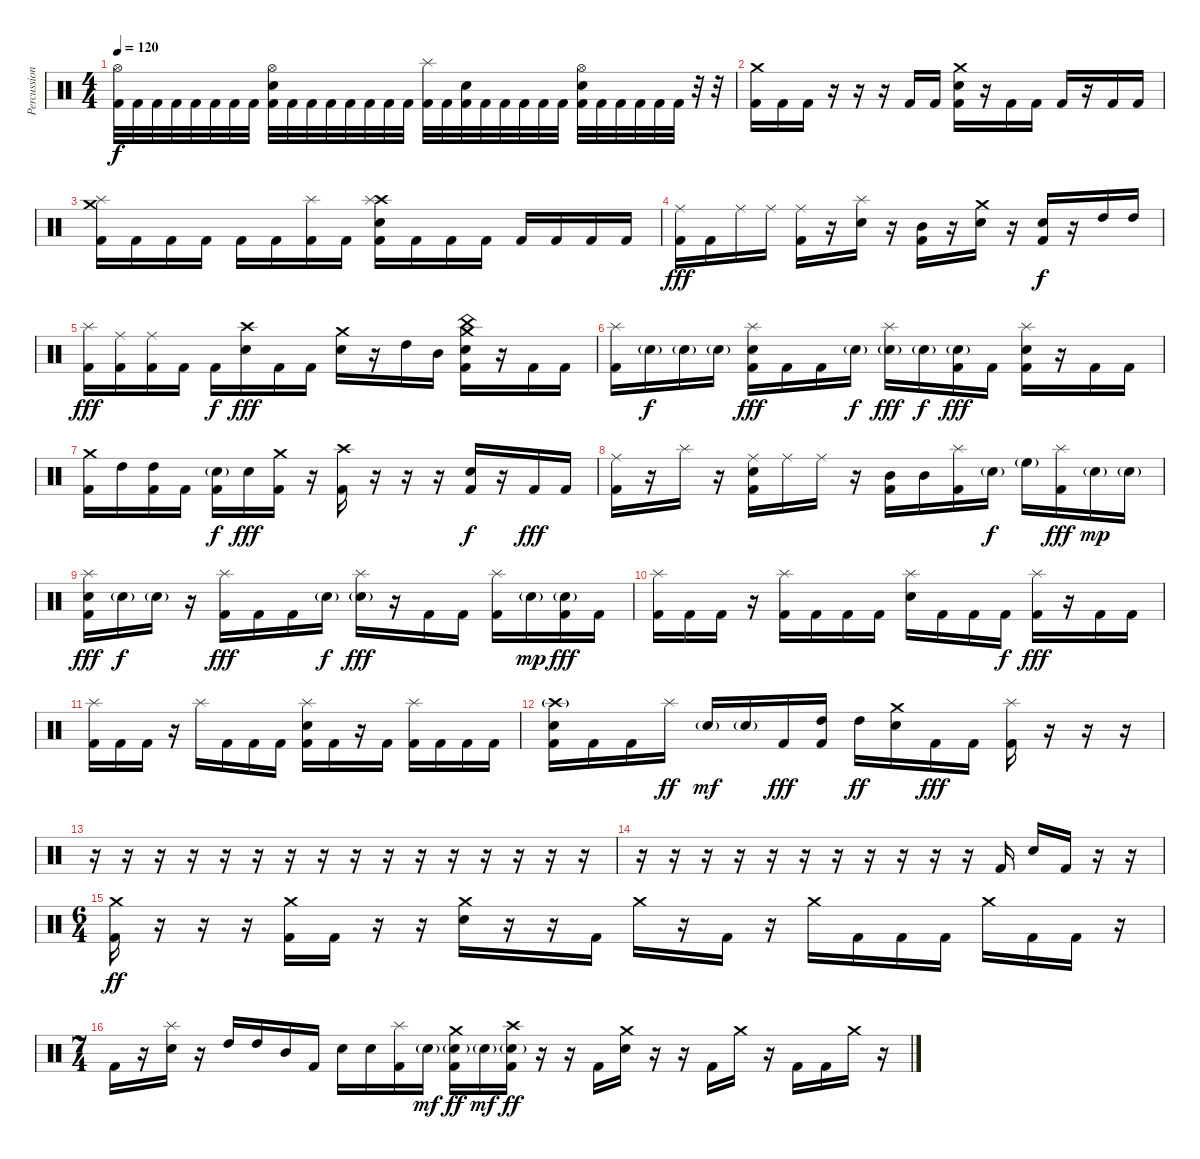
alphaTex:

\track ("Percussion" "Percussion") {instrument percussion}
\staff {score}
\articulation defaults
\ts (4 4)
\tempo 120
\clef neutral
\ks c
("Hi-Hat (open)" "Kick (hit) 2").32{dy f} "Kick (hit) 2".32 "Kick (hit) 2".32 "Kick (hit) 2".32 "Kick (hit) 2".32 "Kick (hit) 2".32 "Kick (hit) 2".32 "Kick (hit) 2".32 ("Hi-Hat (open)" "Electric Snare (hit)" "Kick (hit) 2").32 "Kick (hit) 2".32 "Kick (hit) 2".32 "Kick (hit) 2".32 "Kick (hit) 2".32 "Kick (hit) 2".32 "Kick (hit) 2".32 "Kick (hit) 2".32 ("Splash (hit)" "Kick (hit) 2").32 "Kick (hit) 2".32 ("Electric Snare (hit)" "Kick (hit) 2").32 "Kick (hit) 2".32 "Kick (hit) 2".32 "Kick (hit) 2".32 "Kick (hit) 2".32 "Kick (hit) 2".32 ("Hi-Hat (open)" "Electric Snare (hit)" "Kick (hit) 2").32 "Kick (hit) 2".32 "Kick (hit) 2".32 "Kick (hit) 2".32 "Kick (hit) 2".32 "Kick (hit) 2".32 r.32 r.32 |
("Crash medium (hit)" "Kick (hit) 2").16 "Kick (hit) 2".16 "Kick (hit) 2".16 r.16 r.16 r.16 "Kick (hit) 2".16 "Kick (hit) 2".16 ("Crash medium (hit)" "Electric Snare (hit)" "Kick (hit) 2").16 r.16 "Kick (hit) 2".16 "Kick (hit) 2".16 "Kick (hit) 2".16 r.16 "Kick (hit) 2".16 "Kick (hit) 2".16 |
("Crash medium (hit)" "Splash (hit)" "Kick (hit) 2").16 "Kick (hit) 2".16 "Kick (hit) 2".16 "Kick (hit) 2".16 "Kick (hit) 2".16 "Kick (hit) 2".16 ("Splash (hit)" "Kick (hit) 2").16 "Kick (hit) 2".16 ("Crash high (hit)" "Splash (hit)" "Electric Snare (hit)" "Kick (hit) 2").16 "Kick (hit) 2".16 "Kick (hit) 2".16 "Kick (hit) 2".16 "Kick (hit) 2".16 "Kick (hit) 2".16 "Kick (hit) 2".16 "Kick (hit) 2".16 |
("Ride (middle)" "Kick (hit) 2").16{dy fff} "Kick (hit) 2".16 "Ride (middle)".16 "Ride (middle)".16 ("Ride (middle)" "Kick (hit) 2").16 r.16 ("Splash (hit)" "Electric Snare (hit)").16 r.16 ("Mid Tom (hit)" "Kick (hit) 2").16 r.16 ("Crash medium (hit)" "Electric Snare (hit)").16 r.16 ("Electric Snare (hit)" "Kick (hit) 2").16{dy f} r.16 "High Tom (hit)".16 "High Tom (hit)".16 |
("Splash (hit)" "Kick (hit) 2").16{dy fff} ("Ride (middle)" "Kick (hit) 2").16 ("Ride (middle)" "Kick (hit) 2").16 "Kick (hit) 2".16 "Kick (hit) 2".16{dy f} ("Crash high (hit)" "Electric Snare (hit)").16{dy fff} "Kick (hit) 2".16 "Kick (hit) 2".16 ("Crash medium (hit)" "Electric Snare (hit)").16 r.16 "High Tom (hit)".16 "Mid Tom (hit)".16 ("China (hit)" "Crash medium (hit)" "Electric Snare (hit)" "Kick (hit) 2").16 r.16 "Kick (hit) 2".16 "Kick (hit) 2".16 |
("Splash (hit)" "Kick (hit) 2").16 "Electric Snare (hit)"{g}.16{dy f} "Electric Snare (hit)"{g}.16 "Electric Snare (hit)"{g}.16 ("Splash (hit)" "Electric Snare (hit)" "Kick (hit) 2").16{dy fff} "Kick (hit) 2".16 "Kick (hit) 2".16 "Electric Snare (hit)"{g}.16{dy f} ("Splash (hit)" "Electric Snare (hit)"{g}).16{dy fff} "Electric Snare (hit)"{g}.16{dy f} ("Electric Snare (hit)"{g} "Kick (hit) 2").16{dy fff} "Kick (hit) 2".16 ("Splash (hit)" "Electric Snare (hit)" "Kick (hit) 2").16 r.16 "Kick (hit) 2".16 "Kick (hit) 2".16 |
("Crash medium (hit)" "Kick (hit) 2").16 "High Tom (hit)".16 ("High Tom (hit)" "Kick (hit) 2").16 "Kick (hit) 2".16 ("Electric Snare (hit)"{g} "Kick (hit) 2").16{dy f} "Electric Snare (hit)".16{dy fff} ("Crash medium (hit)" "Kick (hit) 2").16 r.16 ("Crash high (hit)" "Kick (hit) 2").16 r.16 r.16 r.16 ("Electric Snare (hit)" "Kick (hit) 2").16{dy f} r.16 "Kick (hit) 2".16{dy fff} "Kick (hit) 2".16 |
("Ride (middle)" "Kick (hit) 2").16 r.16 "Splash (hit)".16 r.16 ("Ride (middle)" "Electric Snare (hit)" "Kick (hit) 2").16 "Ride (middle)".16 "Ride (middle)".16 r.16 ("Mid Tom (hit)" "Kick (hit) 2").16 "Mid Tom (hit)".16 ("Splash (hit)" "Kick (hit) 2").16 "Electric Snare (hit)"{g}.16{dy f} "High Floor Tom (hit)"{g}.16 ("Splash (hit)" "Kick (hit) 2").16{dy fff} "Electric Snare (hit)"{g}.16{dy mp} "Electric Snare (hit)"{g}.16 |
("Splash (hit)" "Electric Snare (hit)" "Kick (hit) 2").16{dy fff} "Electric Snare (hit)"{g}.16{dy f} "Electric Snare (hit)"{g}.16 r.16 ("Splash (hit)" "Kick (hit) 2").16{dy fff} "Kick (hit) 2".16 "Kick (hit) 2".16 "Electric Snare (hit)"{g}.16{dy f} ("Splash (hit)" "Electric Snare (hit)"{g}).16{dy fff} r.16 "Kick (hit) 2".16 "Kick (hit) 2".16 ("Splash (hit)" "Kick (hit) 2").16 "Electric Snare (hit)"{g}.16{dy mp} ("Electric Snare (hit)"{g} "Kick (hit) 2").16{dy fff} "Kick (hit) 2".16 |
("Splash (hit)" "Kick (hit) 2").16 "Kick (hit) 2".16 "Kick (hit) 2".16 r.16 ("Splash (hit)" "Kick (hit) 2").16 "Kick (hit) 2".16 "Kick (hit) 2".16 "Kick (hit) 2".16 ("Splash (hit)" "Electric Snare (hit)").16 "Kick (hit) 2".16 "Kick (hit) 2".16 "Kick (hit) 2".16{dy f} ("Splash (hit)" "Kick (hit) 2").16{dy fff} r.16 "Kick (hit) 2".16 "Kick (hit) 2".16 |
("Splash (hit)" "Kick (hit) 2").16 "Kick (hit) 2".16 "Kick (hit) 2".16 r.16 "Splash (hit)".16 "Kick (hit) 2".16 "Kick (hit) 2".16 "Kick (hit) 2".16 ("Splash (hit)" "Electric Snare (hit)" "Kick (hit) 2").16 "Kick (hit) 2".16 r.16 "Kick (hit) 2".16 ("Splash (hit)" "Kick (hit) 2").16 "Kick (hit) 2".16 "Kick (hit) 2".16 "Kick (hit) 2".16 |
("Crash high (hit)"{g} "Electric Snare (hit)" "Kick (hit) 2").16 "Kick (hit) 2".16 "Kick (hit) 2".16 "Splash (hit)".16{dy ff} "Electric Snare (hit)"{g}.16{dy mf} "Electric Snare (hit)"{g}.16 "Kick (hit) 2".16{dy fff} ("High Tom (hit)" "Kick (hit) 2").16 "High Tom (hit)".16{dy ff} ("Crash medium (hit)" "Electric Snare (hit)").16 "Kick (hit) 2".16{dy fff} "Kick (hit) 2".16 ("Splash (hit)" "Kick (hit) 2").16 r.16 r.16 r.16 |
r.16 r.16 r.16 r.16 r.16 r.16 r.16 r.16 r.16 r.16 r.16 r.16 r.16 r.16 r.16 r.16 |
r.16 r.16 r.16 r.16 r.16 r.16 r.16 r.16 r.16 r.16 r.16 "Kick (hit) 2".16 "Electric Snare (hit)".16 "Kick (hit) 2".16 r.16 r.16 |
\ts (6 4)
("Crash medium (hit)" "Kick (hit) 2").16{dy ff} r.16 r.16 r.16 ("Crash medium (hit)" "Kick (hit) 2").16 "Kick (hit) 2".16 r.16 r.16 ("Crash medium (hit)" "Electric Snare (hit)").16 r.16 r.16 "Kick (hit) 2".16 "Crash medium (hit)".16 r.16 "Kick (hit) 2".16 r.16 "Crash medium (hit)".16 "Kick (hit) 2".16 "Kick (hit) 2".16 "Kick (hit) 2".16 "Crash medium (hit)".16 "Kick (hit) 2".16 "Kick (hit) 2".16 r.16 |
\ts (7 4)
"Kick (hit) 2".16 r.16 ("Splash (hit)" "Electric Snare (hit)").16 r.16 "High Tom (hit)".16 "High Tom (hit)".16 "Mid Tom (hit)".16 "Kick (hit) 2".16 "Electric Snare (hit)".16 "Electric Snare (hit)".16 ("Splash (hit)" "Kick (hit) 2").16 "Electric Snare (hit)"{g}.16{dy mf} ("Crash medium (hit)" "Electric Snare (hit)"{g} "Kick (hit) 2").16{dy ff} "Electric Snare (hit)"{g}.16{dy mf} ("Crash high (hit)" "Electric Snare (hit)"{g} "Kick (hit) 2").16{dy ff} r.16 r.16 "Kick (hit) 2".16 ("Crash medium (hit)" "Electric Snare (hit)").16 r.16 r.16 "Kick (hit) 2".16 "Crash medium (hit)".16 r.16 "Kick (hit) 2".16 "Kick (hit) 2".16 "Crash medium (hit)".16 r.16
